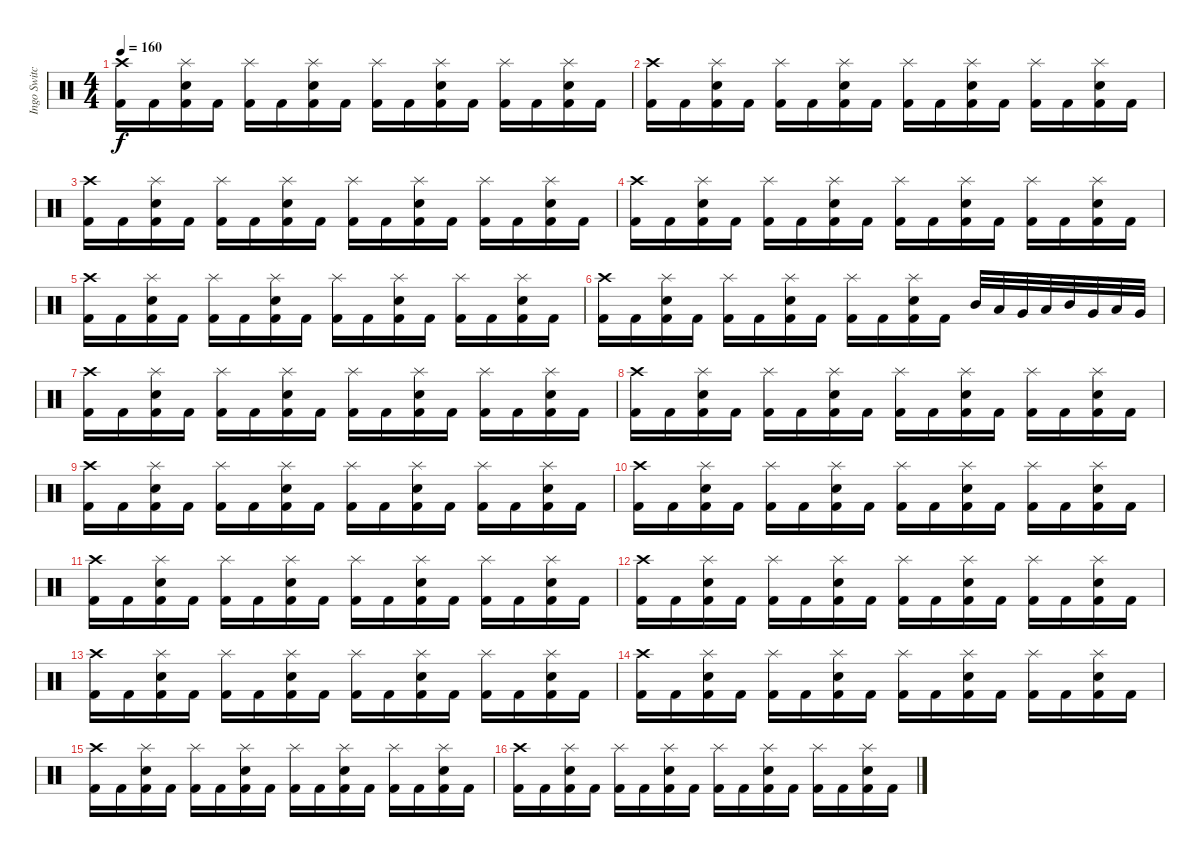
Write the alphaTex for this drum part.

\track ("Ingo Switchenberg" "Ingo Switc") {instrument percussion}
\staff {score}
\articulation defaults
\ts (4 4)
\tempo 160
\clef neutral
\ks c
("Crash high (hit)" "Kick (hit) 2").16{dy f} "Kick (hit) 2".16 ("Snare (hit) 2" "Kick (hit) 2" "Splash (hit)").16 "Kick (hit) 2".16 ("Kick (hit) 2" "Splash (hit)").16 "Kick (hit) 2".16 ("Snare (hit) 2" "Kick (hit) 2" "Splash (hit)").16 "Kick (hit) 2".16 ("Kick (hit) 2" "Splash (hit)").16 "Kick (hit) 2".16 ("Snare (hit) 2" "Kick (hit) 2" "Splash (hit)").16 "Kick (hit) 2".16 ("Kick (hit) 2" "Splash (hit)").16 "Kick (hit) 2".16 ("Snare (hit) 2" "Kick (hit) 2" "Splash (hit)").16 "Kick (hit) 2".16 |
("Crash high (hit)" "Kick (hit) 2").16 "Kick (hit) 2".16 ("Snare (hit) 2" "Kick (hit) 2" "Splash (hit)").16 "Kick (hit) 2".16 ("Kick (hit) 2" "Splash (hit)").16 "Kick (hit) 2".16 ("Snare (hit) 2" "Kick (hit) 2" "Splash (hit)").16 "Kick (hit) 2".16 ("Kick (hit) 2" "Splash (hit)").16 "Kick (hit) 2".16 ("Snare (hit) 2" "Kick (hit) 2" "Splash (hit)").16 "Kick (hit) 2".16 ("Kick (hit) 2" "Splash (hit)").16 "Kick (hit) 2".16 ("Snare (hit) 2" "Kick (hit) 2" "Splash (hit)").16 "Kick (hit) 2".16 |
("Crash high (hit)" "Kick (hit) 2").16 "Kick (hit) 2".16 ("Snare (hit) 2" "Kick (hit) 2" "Splash (hit)").16 "Kick (hit) 2".16 ("Kick (hit) 2" "Splash (hit)").16 "Kick (hit) 2".16 ("Snare (hit) 2" "Kick (hit) 2" "Splash (hit)").16 "Kick (hit) 2".16 ("Kick (hit) 2" "Splash (hit)").16 "Kick (hit) 2".16 ("Snare (hit) 2" "Kick (hit) 2" "Splash (hit)").16 "Kick (hit) 2".16 ("Kick (hit) 2" "Splash (hit)").16 "Kick (hit) 2".16 ("Snare (hit) 2" "Kick (hit) 2" "Splash (hit)").16 "Kick (hit) 2".16 |
("Crash high (hit)" "Kick (hit) 2").16 "Kick (hit) 2".16 ("Snare (hit) 2" "Kick (hit) 2" "Splash (hit)").16 "Kick (hit) 2".16 ("Kick (hit) 2" "Splash (hit)").16 "Kick (hit) 2".16 ("Snare (hit) 2" "Kick (hit) 2" "Splash (hit)").16 "Kick (hit) 2".16 ("Kick (hit) 2" "Splash (hit)").16 "Kick (hit) 2".16 ("Snare (hit) 2" "Kick (hit) 2" "Splash (hit)").16 "Kick (hit) 2".16 ("Kick (hit) 2" "Splash (hit)").16 "Kick (hit) 2".16 ("Snare (hit) 2" "Kick (hit) 2" "Splash (hit)").16 "Kick (hit) 2".16 |
("Crash high (hit)" "Kick (hit) 2").16 "Kick (hit) 2".16 ("Snare (hit) 2" "Kick (hit) 2" "Splash (hit)").16 "Kick (hit) 2".16 ("Kick (hit) 2" "Splash (hit)").16 "Kick (hit) 2".16 ("Snare (hit) 2" "Kick (hit) 2" "Splash (hit)").16 "Kick (hit) 2".16 ("Kick (hit) 2" "Splash (hit)").16 "Kick (hit) 2".16 ("Snare (hit) 2" "Kick (hit) 2" "Splash (hit)").16 "Kick (hit) 2".16 ("Kick (hit) 2" "Splash (hit)").16 "Kick (hit) 2".16 ("Snare (hit) 2" "Kick (hit) 2" "Splash (hit)").16 "Kick (hit) 2".16 |
("Crash high (hit)" "Kick (hit) 2").16 "Kick (hit) 2".16 ("Snare (hit) 2" "Kick (hit) 2" "Splash (hit)").16 "Kick (hit) 2".16 ("Kick (hit) 2" "Splash (hit)").16 "Kick (hit) 2".16 ("Snare (hit) 2" "Kick (hit) 2" "Splash (hit)").16 "Kick (hit) 2".16 ("Kick (hit) 2" "Splash (hit)").16 "Kick (hit) 2".16 ("Snare (hit) 2" "Kick (hit) 2" "Splash (hit)").16 "Kick (hit) 2".16 "Mid Tom (hit)".32 "Low Tom (hit)".32 "Very Low Tom (hit)".32 "Low Tom (hit)".32 "Mid Tom (hit)".32 "Very Low Tom (hit)".32 "Low Tom (hit)".32 "Very Low Tom (hit)".32 |
("Crash high (hit)" "Kick (hit) 2").16 "Kick (hit) 2".16 ("Snare (hit) 2" "Kick (hit) 2" "Splash (hit)").16 "Kick (hit) 2".16 ("Kick (hit) 2" "Splash (hit)").16 "Kick (hit) 2".16 ("Snare (hit) 2" "Kick (hit) 2" "Splash (hit)").16 "Kick (hit) 2".16 ("Kick (hit) 2" "Splash (hit)").16 "Kick (hit) 2".16 ("Snare (hit) 2" "Kick (hit) 2" "Splash (hit)").16 "Kick (hit) 2".16 ("Kick (hit) 2" "Splash (hit)").16 "Kick (hit) 2".16 ("Snare (hit) 2" "Kick (hit) 2" "Splash (hit)").16 "Kick (hit) 2".16 |
("Crash high (hit)" "Kick (hit) 2").16 "Kick (hit) 2".16 ("Snare (hit) 2" "Kick (hit) 2" "Splash (hit)").16 "Kick (hit) 2".16 ("Kick (hit) 2" "Splash (hit)").16 "Kick (hit) 2".16 ("Snare (hit) 2" "Kick (hit) 2" "Splash (hit)").16 "Kick (hit) 2".16 ("Kick (hit) 2" "Splash (hit)").16 "Kick (hit) 2".16 ("Snare (hit) 2" "Kick (hit) 2" "Splash (hit)").16 "Kick (hit) 2".16 ("Kick (hit) 2" "Splash (hit)").16 "Kick (hit) 2".16 ("Snare (hit) 2" "Kick (hit) 2" "Splash (hit)").16 "Kick (hit) 2".16 |
("Crash high (hit)" "Kick (hit) 2").16 "Kick (hit) 2".16 ("Snare (hit) 2" "Kick (hit) 2" "Splash (hit)").16 "Kick (hit) 2".16 ("Kick (hit) 2" "Splash (hit)").16 "Kick (hit) 2".16 ("Snare (hit) 2" "Kick (hit) 2" "Splash (hit)").16 "Kick (hit) 2".16 ("Kick (hit) 2" "Splash (hit)").16 "Kick (hit) 2".16 ("Snare (hit) 2" "Kick (hit) 2" "Splash (hit)").16 "Kick (hit) 2".16 ("Kick (hit) 2" "Splash (hit)").16 "Kick (hit) 2".16 ("Snare (hit) 2" "Kick (hit) 2" "Splash (hit)").16 "Kick (hit) 2".16 |
("Crash high (hit)" "Kick (hit) 2").16 "Kick (hit) 2".16 ("Snare (hit) 2" "Kick (hit) 2" "Splash (hit)").16 "Kick (hit) 2".16 ("Kick (hit) 2" "Splash (hit)").16 "Kick (hit) 2".16 ("Snare (hit) 2" "Kick (hit) 2" "Splash (hit)").16 "Kick (hit) 2".16 ("Kick (hit) 2" "Splash (hit)").16 "Kick (hit) 2".16 ("Snare (hit) 2" "Kick (hit) 2" "Splash (hit)").16 "Kick (hit) 2".16 ("Kick (hit) 2" "Splash (hit)").16 "Kick (hit) 2".16 ("Snare (hit) 2" "Kick (hit) 2" "Splash (hit)").16 "Kick (hit) 2".16 |
("Crash high (hit)" "Kick (hit) 2").16 "Kick (hit) 2".16 ("Snare (hit) 2" "Kick (hit) 2" "Splash (hit)").16 "Kick (hit) 2".16 ("Kick (hit) 2" "Splash (hit)").16 "Kick (hit) 2".16 ("Snare (hit) 2" "Kick (hit) 2" "Splash (hit)").16 "Kick (hit) 2".16 ("Kick (hit) 2" "Splash (hit)").16 "Kick (hit) 2".16 ("Snare (hit) 2" "Kick (hit) 2" "Splash (hit)").16 "Kick (hit) 2".16 ("Kick (hit) 2" "Splash (hit)").16 "Kick (hit) 2".16 ("Snare (hit) 2" "Kick (hit) 2" "Splash (hit)").16 "Kick (hit) 2".16 |
("Crash high (hit)" "Kick (hit) 2").16 "Kick (hit) 2".16 ("Snare (hit) 2" "Kick (hit) 2" "Splash (hit)").16 "Kick (hit) 2".16 ("Kick (hit) 2" "Splash (hit)").16 "Kick (hit) 2".16 ("Snare (hit) 2" "Kick (hit) 2" "Splash (hit)").16 "Kick (hit) 2".16 ("Kick (hit) 2" "Splash (hit)").16 "Kick (hit) 2".16 ("Snare (hit) 2" "Kick (hit) 2" "Splash (hit)").16 "Kick (hit) 2".16 ("Kick (hit) 2" "Splash (hit)").16 "Kick (hit) 2".16 ("Snare (hit) 2" "Kick (hit) 2" "Splash (hit)").16 "Kick (hit) 2".16 |
("Crash high (hit)" "Kick (hit) 2").16 "Kick (hit) 2".16 ("Snare (hit) 2" "Kick (hit) 2" "Splash (hit)").16 "Kick (hit) 2".16 ("Kick (hit) 2" "Splash (hit)").16 "Kick (hit) 2".16 ("Snare (hit) 2" "Kick (hit) 2" "Splash (hit)").16 "Kick (hit) 2".16 ("Kick (hit) 2" "Splash (hit)").16 "Kick (hit) 2".16 ("Snare (hit) 2" "Kick (hit) 2" "Splash (hit)").16 "Kick (hit) 2".16 ("Kick (hit) 2" "Splash (hit)").16 "Kick (hit) 2".16 ("Snare (hit) 2" "Kick (hit) 2" "Splash (hit)").16 "Kick (hit) 2".16 |
("Crash high (hit)" "Kick (hit) 2").16 "Kick (hit) 2".16 ("Snare (hit) 2" "Kick (hit) 2" "Splash (hit)").16 "Kick (hit) 2".16 ("Kick (hit) 2" "Splash (hit)").16 "Kick (hit) 2".16 ("Snare (hit) 2" "Kick (hit) 2" "Splash (hit)").16 "Kick (hit) 2".16 ("Kick (hit) 2" "Splash (hit)").16 "Kick (hit) 2".16 ("Snare (hit) 2" "Kick (hit) 2" "Splash (hit)").16 "Kick (hit) 2".16 ("Kick (hit) 2" "Splash (hit)").16 "Kick (hit) 2".16 ("Snare (hit) 2" "Kick (hit) 2" "Splash (hit)").16 "Kick (hit) 2".16 |
("Crash high (hit)" "Kick (hit) 2").16 "Kick (hit) 2".16 ("Snare (hit) 2" "Kick (hit) 2" "Splash (hit)").16 "Kick (hit) 2".16 ("Kick (hit) 2" "Splash (hit)").16 "Kick (hit) 2".16 ("Snare (hit) 2" "Kick (hit) 2" "Splash (hit)").16 "Kick (hit) 2".16 ("Kick (hit) 2" "Splash (hit)").16 "Kick (hit) 2".16 ("Snare (hit) 2" "Kick (hit) 2" "Splash (hit)").16 "Kick (hit) 2".16 ("Kick (hit) 2" "Splash (hit)").16 "Kick (hit) 2".16 ("Snare (hit) 2" "Kick (hit) 2" "Splash (hit)").16 "Kick (hit) 2".16 |
("Crash high (hit)" "Kick (hit) 2").16 "Kick (hit) 2".16 ("Snare (hit) 2" "Kick (hit) 2" "Splash (hit)").16 "Kick (hit) 2".16 ("Kick (hit) 2" "Splash (hit)").16 "Kick (hit) 2".16 ("Snare (hit) 2" "Kick (hit) 2" "Splash (hit)").16 "Kick (hit) 2".16 ("Kick (hit) 2" "Splash (hit)").16 "Kick (hit) 2".16 ("Snare (hit) 2" "Kick (hit) 2" "Splash (hit)").16 "Kick (hit) 2".16 ("Kick (hit) 2" "Splash (hit)").16 "Kick (hit) 2".16 ("Snare (hit) 2" "Kick (hit) 2" "Splash (hit)").16 "Kick (hit) 2".16
